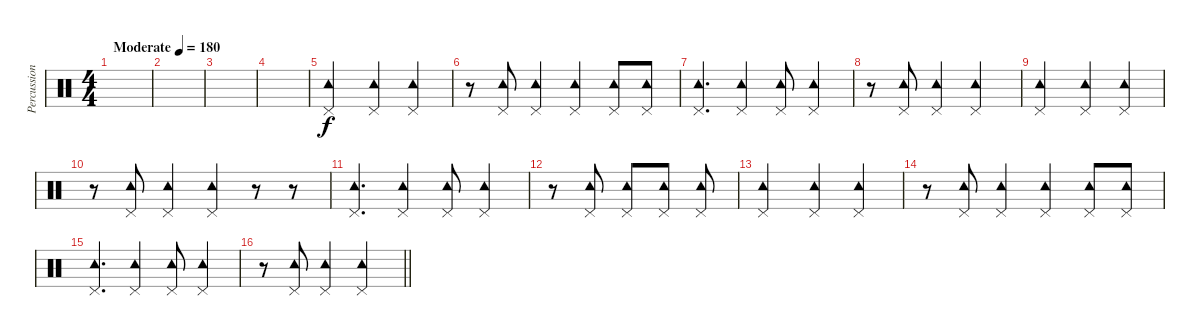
\track ("Percussion" "Percussion") {instrument percussion}
\staff {score}
\articulation defaults
\ts (4 4)
\tempo (180 "Moderate")
\clef neutral
\ks c
|
|
|
|
("Tambourine (hit)" "Pedal Hi-Hat (hit)").2 ("Tambourine (hit)" "Pedal Hi-Hat (hit)").4 ("Tambourine (hit)" "Pedal Hi-Hat (hit)").4 |
r.8 ("Tambourine (hit)" "Pedal Hi-Hat (hit)").8 ("Tambourine (hit)" "Pedal Hi-Hat (hit)").4 ("Tambourine (hit)" "Pedal Hi-Hat (hit)").4 ("Tambourine (hit)" "Pedal Hi-Hat (hit)").8 ("Tambourine (hit)" "Pedal Hi-Hat (hit)").8 |
("Tambourine (hit)" "Pedal Hi-Hat (hit)").4{d} ("Tambourine (hit)" "Pedal Hi-Hat (hit)").4 ("Tambourine (hit)" "Pedal Hi-Hat (hit)").8 ("Tambourine (hit)" "Pedal Hi-Hat (hit)").4 |
r.8 ("Tambourine (hit)" "Pedal Hi-Hat (hit)").8 ("Tambourine (hit)" "Pedal Hi-Hat (hit)").4 ("Tambourine (hit)" "Pedal Hi-Hat (hit)").2 |
("Tambourine (hit)" "Pedal Hi-Hat (hit)").2 ("Tambourine (hit)" "Pedal Hi-Hat (hit)").4 ("Tambourine (hit)" "Pedal Hi-Hat (hit)").4 |
r.8 ("Tambourine (hit)" "Pedal Hi-Hat (hit)").8 ("Tambourine (hit)" "Pedal Hi-Hat (hit)").4 ("Tambourine (hit)" "Pedal Hi-Hat (hit)").4 r.8 r.8 |
("Tambourine (hit)" "Pedal Hi-Hat (hit)").4{d} ("Tambourine (hit)" "Pedal Hi-Hat (hit)").4 ("Tambourine (hit)" "Pedal Hi-Hat (hit)").8 ("Tambourine (hit)" "Pedal Hi-Hat (hit)").4 |
r.8 ("Tambourine (hit)" "Pedal Hi-Hat (hit)").8 ("Tambourine (hit)" "Pedal Hi-Hat (hit)").8 ("Tambourine (hit)" "Pedal Hi-Hat (hit)").8 ("Tambourine (hit)" "Pedal Hi-Hat (hit)").8 |
("Tambourine (hit)" "Pedal Hi-Hat (hit)").2 ("Tambourine (hit)" "Pedal Hi-Hat (hit)").4 ("Tambourine (hit)" "Pedal Hi-Hat (hit)").4 |
r.8 ("Tambourine (hit)" "Pedal Hi-Hat (hit)").8 ("Tambourine (hit)" "Pedal Hi-Hat (hit)").4 ("Tambourine (hit)" "Pedal Hi-Hat (hit)").4 ("Tambourine (hit)" "Pedal Hi-Hat (hit)").8 ("Tambourine (hit)" "Pedal Hi-Hat (hit)").8 |
("Tambourine (hit)" "Pedal Hi-Hat (hit)").4{d} ("Tambourine (hit)" "Pedal Hi-Hat (hit)").4 ("Tambourine (hit)" "Pedal Hi-Hat (hit)").8 ("Tambourine (hit)" "Pedal Hi-Hat (hit)").4 |
\barLineRight lightlight
r.8 ("Tambourine (hit)" "Pedal Hi-Hat (hit)").8 ("Tambourine (hit)" "Pedal Hi-Hat (hit)").4 ("Tambourine (hit)" "Pedal Hi-Hat (hit)").2
